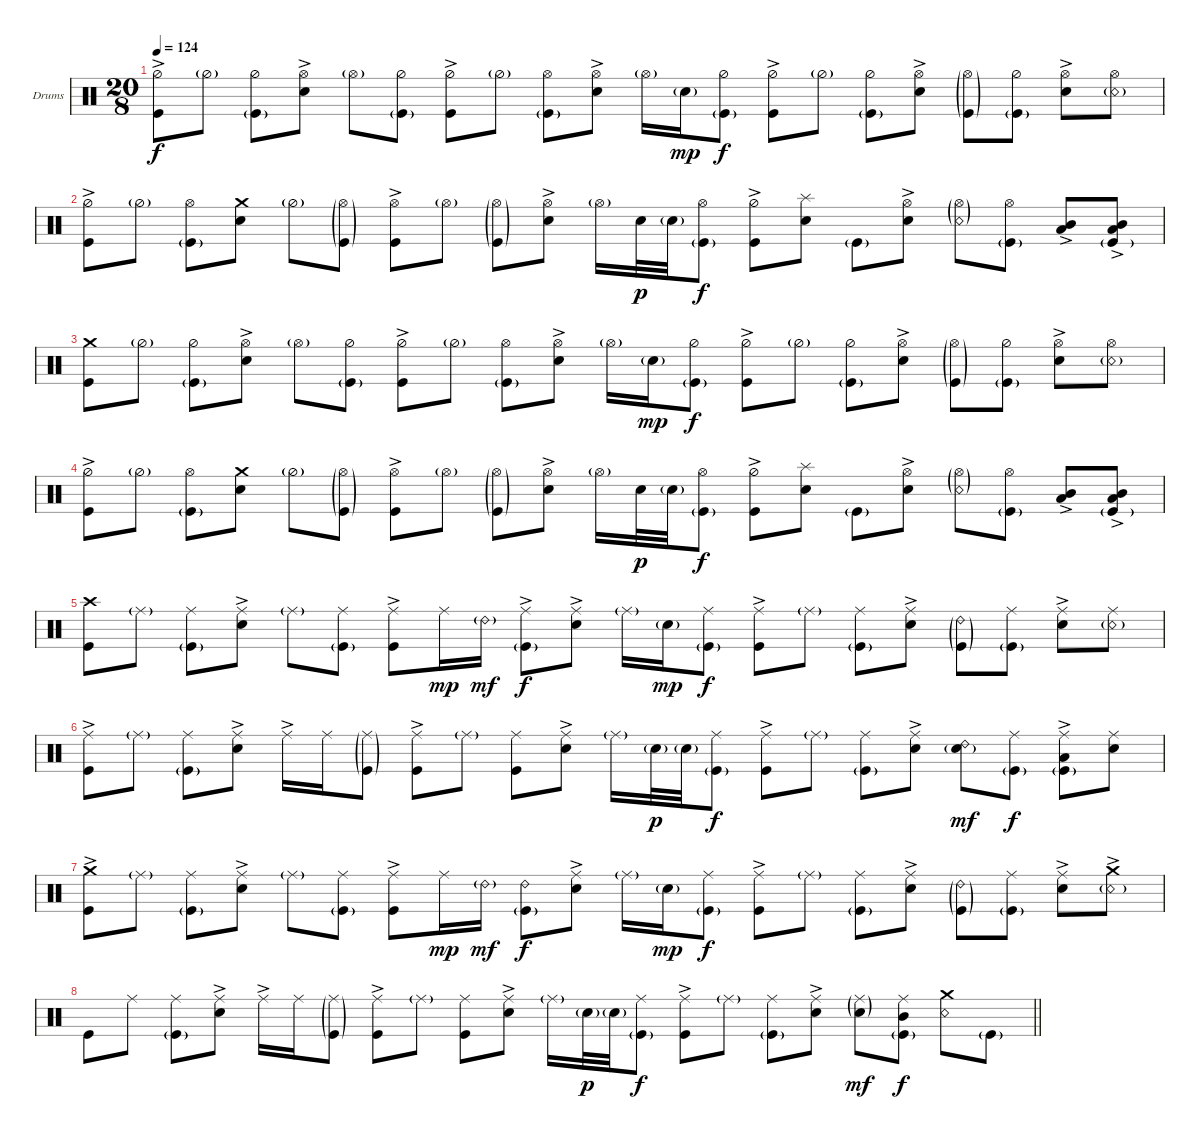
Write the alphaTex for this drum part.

\bracketExtendMode groupsimilarinstruments
\firstSystemTrackNameOrientation horizontal
\otherSystemsTrackNameOrientation horizontal
\track ("Drumkit" "Drums") {instrument percussion}
\staff {score}
\articulation defaults
\ts (20 8)
\tempo 124
\clef neutral
\ks c
("Kick (hit)" "Hi-Hat (half)"{ac}).8{dy f} "Hi-Hat (half)"{g}.8 ("Kick (hit)"{g} "Hi-Hat (half)").8 ("Snare (hit) 2" "Hi-Hat (open)"{ac}).8 "Hi-Hat (open)"{g}.8 ("Kick (hit)"{g} "Hi-Hat (half)").8 ("Kick (hit)" "Hi-Hat (half)"{ac}).8 "Hi-Hat (half)"{g}.8 ("Kick (hit)"{g} "Hi-Hat (open)").8 ("Snare (hit) 2" "Hi-Hat (open)"{ac}).8 "Hi-Hat (open)"{g}.16 "Snare (hit) 2"{g}.16{dy mp} ("Kick (hit)"{g} "Hi-Hat (half)").8{dy f} ("Kick (hit)" "Hi-Hat (half)"{ac}).8 "Hi-Hat (half)"{g}.8 ("Kick (hit)"{g} "Hi-Hat (half)").8 ("Snare (hit) 2" "Hi-Hat (open)"{ac}).8 ("Kick (hit)"{g} "Hi-Hat (open)"{g}).8 ("Kick (hit)"{g} "Hi-Hat (half)").8 ("Snare (hit) 2" "Hi-Hat (open)"{ac}).8 ("Snare (rim shot)"{g} "Hi-Hat (open)").8 |
("Kick (hit)" "Hi-Hat (half)"{ac}).8 "Hi-Hat (half)"{g}.8 ("Kick (hit)"{g} "Hi-Hat (open)").8 ("Snare (hit) 2" "Crash medium (hit)").8 "Hi-Hat (half)"{g}.8 ("Kick (hit)"{g} "Hi-Hat (open)"{g}).8 ("Kick (hit)" "Hi-Hat (open)"{ac}).8 "Hi-Hat (open)"{g}.8 ("Kick (hit)"{g} "Hi-Hat (open)"{g}).8 ("Snare (hit) 2" "Hi-Hat (open)"{ac}).8 "Hi-Hat (open)"{g}.16 "Snare (hit) 2".32{dy p} "Snare (hit) 2"{g}.32 ("Kick (hit)"{g} "Hi-Hat (open)").8{dy f} ("Kick (hit)" "Hi-Hat (half)"{ac}).8 ("Snare (hit) 2" "Splash (hit)").8 "Kick (hit)"{g}.8 ("Snare (hit) 2" "Hi-Hat (open)"{ac}).8 ("Hi-Hat (open)"{g} "Snare (rim shot)"{g}).8 ("Kick (hit)"{g} "Hi-Hat (open)").8 ("Mid Tom (hit)" "Low Tom (hit)"{ac}).8 ("Kick (hit)"{g} "Mid Tom (hit)" "Low Tom (hit)"{ac}).8 |
("Kick (hit)" "Crash medium (hit)").8 "Hi-Hat (half)"{g}.8 ("Kick (hit)"{g} "Hi-Hat (half)").8 ("Snare (hit) 2" "Hi-Hat (open)"{ac}).8 "Hi-Hat (open)"{g}.8 ("Kick (hit)"{g} "Hi-Hat (half)").8 ("Kick (hit)" "Hi-Hat (half)"{ac}).8 "Hi-Hat (half)"{g}.8 ("Kick (hit)"{g} "Hi-Hat (open)").8 ("Snare (hit) 2" "Hi-Hat (open)"{ac}).8 "Hi-Hat (open)"{g}.16 "Snare (hit) 2"{g}.16{dy mp} ("Kick (hit)"{g} "Hi-Hat (half)").8{dy f} ("Kick (hit)" "Hi-Hat (half)"{ac}).8 "Hi-Hat (half)"{g}.8 ("Kick (hit)"{g} "Hi-Hat (half)").8 ("Snare (hit) 2" "Hi-Hat (open)"{ac}).8 ("Kick (hit)"{g} "Hi-Hat (open)"{g}).8 ("Kick (hit)"{g} "Hi-Hat (half)").8 ("Snare (hit) 2" "Hi-Hat (open)"{ac}).8 ("Snare (rim shot)"{g} "Hi-Hat (open)").8 |
("Kick (hit)" "Hi-Hat (half)"{ac}).8 "Hi-Hat (half)"{g}.8 ("Kick (hit)"{g} "Hi-Hat (open)").8 ("Snare (hit) 2" "Crash medium (hit)").8 "Hi-Hat (half)"{g}.8 ("Kick (hit)"{g} "Hi-Hat (open)"{g}).8 ("Kick (hit)" "Hi-Hat (open)"{ac}).8 "Hi-Hat (open)"{g}.8 ("Kick (hit)"{g} "Hi-Hat (open)"{g}).8 ("Snare (hit) 2" "Hi-Hat (open)"{ac}).8 "Hi-Hat (open)"{g}.16 "Snare (hit) 2".32{dy p} "Snare (hit) 2"{g}.32 ("Kick (hit)"{g} "Hi-Hat (open)").8{dy f} ("Kick (hit)" "Hi-Hat (half)"{ac}).8 ("Snare (hit) 2" "Splash (hit)").8 "Kick (hit)"{g}.8 ("Snare (hit) 2" "Hi-Hat (open)"{ac}).8 ("Hi-Hat (open)"{g} "Snare (rim shot)"{g}).8 ("Kick (hit)"{g} "Hi-Hat (open)").8 ("Mid Tom (hit)" "Low Tom (hit)"{ac}).8 ("Kick (hit)"{g} "Mid Tom (hit)" "Low Tom (hit)"{ac}).8 |
("Kick (hit)" "Crash high (hit)").8 "Ride (middle)"{g}.8 ("Ride (middle)" "Kick (hit)"{g}).8 ("Ride (middle)"{ac} "Snare (hit) 2").8 "Ride (middle)"{g}.8 ("Ride (middle)" "Kick (hit)"{g}).8 ("Ride (middle)"{ac} "Kick (hit)").8 "Ride (middle)".16{dy mp} "Ride (bell) 2"{g}.16{dy mf} ("Ride (middle)"{ac} "Kick (hit)"{g}).8{dy f} ("Ride (middle)"{ac} "Snare (hit) 2").8 "Ride (middle)"{g}.16 "Snare (hit) 2"{g}.16{dy mp} ("Ride (middle)" "Kick (hit)"{g}).8{dy f} ("Kick (hit)" "Ride (middle)"{ac}).8 "Ride (middle)"{g}.8 ("Ride (middle)" "Kick (hit)"{g}).8 ("Ride (middle)"{ac} "Snare (hit) 2").8 ("Ride (bell) 2"{g} "Kick (hit)"{g}).8 ("Ride (middle)" "Kick (hit)"{g}).8 ("Ride (middle)"{ac} "Snare (hit) 2").8 ("Ride (middle)" "Snare (rim shot)"{g}).8 |
("Kick (hit)" "Ride (middle)"{ac}).8 "Ride (middle)"{g}.8 ("Ride (middle)" "Kick (hit)"{g}).8 ("Ride (middle)"{ac} "Snare (hit) 2").8 "Ride (middle)"{ac}.16 "Ride (middle)".16 ("Ride (middle)"{g} "Kick (hit)"{g}).8 ("Ride (middle)"{ac} "Kick (hit)").8 "Ride (middle)"{g}.8 ("Ride (middle)" "Kick (hit)").8 ("Ride (middle)"{ac} "Snare (hit) 2").8 "Ride (middle)"{g}.16 "Snare (hit) 2"{g}.32{dy p} "Snare (hit) 2"{g}.32 ("Ride (middle)" "Kick (hit)"{g}).8{dy f} ("Kick (hit)" "Ride (middle)"{ac}).8 "Ride (middle)"{g}.8 ("Ride (middle)" "Kick (hit)"{g}).8 ("Ride (middle)"{ac} "Snare (hit) 2").8 ("Ride (bell) 2" "Snare (hit) 2"{g}).8{dy mf} ("Ride (middle)" "Kick (hit)"{g}).8{dy f} ("Low Tom (hit)"{ac} "Kick (hit)"{g} "Ride (middle)").8 ("Snare (hit) 2" "Ride (middle)").8 |
("Kick (hit)" "Crash medium (hit)"{ac}).8 "Ride (middle)"{g}.8 ("Ride (middle)" "Kick (hit)"{g}).8 ("Ride (middle)"{ac} "Snare (hit) 2").8 "Ride (middle)"{g}.8 ("Ride (middle)" "Kick (hit)"{g}).8 ("Ride (middle)"{ac} "Kick (hit)").8 "Ride (middle)".16{dy mp} "Ride (bell) 2"{g}.16{dy mf} ("Ride (bell) 2" "Kick (hit)"{g}).8{dy f} ("Ride (middle)"{ac} "Snare (hit) 2").8 "Ride (middle)"{g}.16 "Snare (hit) 2"{g}.16{dy mp} ("Ride (middle)" "Kick (hit)"{g}).8{dy f} ("Kick (hit)" "Ride (middle)"{ac}).8 "Ride (middle)"{g}.8 ("Ride (middle)" "Kick (hit)"{g}).8 ("Ride (middle)"{ac} "Snare (hit) 2").8 ("Ride (bell) 2"{g} "Kick (hit)"{g}).8 ("Ride (middle)" "Kick (hit)"{g}).8 ("Ride (middle)"{ac} "Snare (hit) 2").8 ("Snare (rim shot)"{g} "Crash medium (hit)"{ac}).8 |
\barLineRight lightlight "Kick (hit)".8 "Ride (middle)".8
("Ride (middle)" "Kick (hit)"{g}).8 ("Ride (middle)"{ac} "Snare (hit) 2").8 "Ride (middle)"{ac}.16 "Ride (middle)".16 ("Ride (middle)"{g} "Kick (hit)"{g}).8 ("Ride (middle)"{ac} "Kick (hit)").8 "Ride (middle)"{g}.8 ("Ride (middle)" "Kick (hit)").8 ("Ride (middle)"{ac} "Snare (hit) 2").8 "Ride (middle)"{g}.16 "Snare (hit) 2"{g}.32{dy p} "Snare (hit) 2"{g}.32 ("Ride (middle)" "Kick (hit)"{g}).8{dy f} ("Kick (hit)" "Ride (middle)"{ac}).8 "Ride (middle)"{g}.8 ("Ride (middle)" "Kick (hit)"{g}).8 ("Ride (middle)"{ac} "Snare (hit) 2").8 ("Ride (middle)"{g} "Snare (hit) 2"{g}).8{dy mf} ("Ride (middle)" "Kick (hit)"{g} "Mid Tom (hit)").8{dy f} ("Snare (rim shot)" "Crash medium (hit)").8 "Kick (hit)"{g}.8
